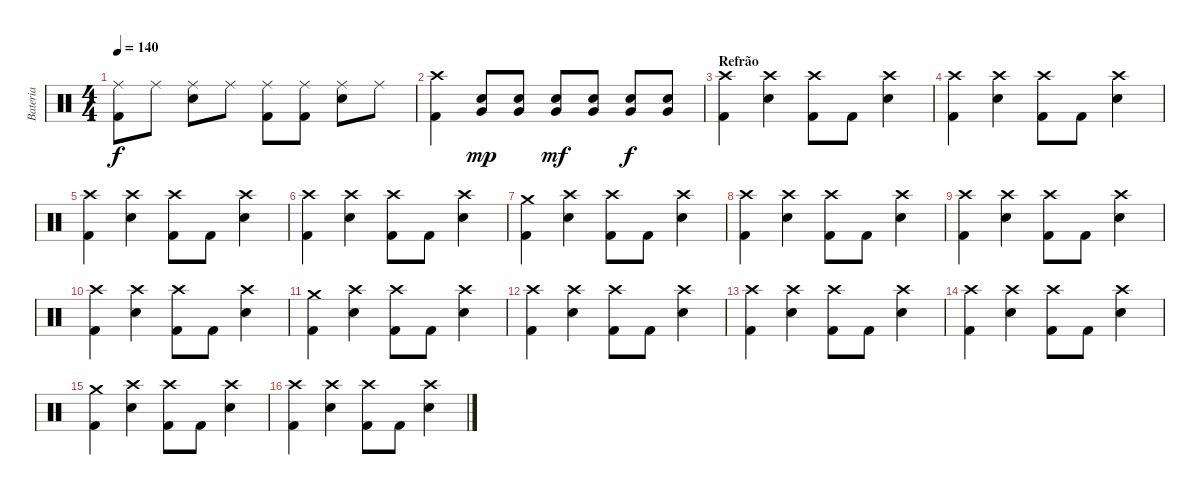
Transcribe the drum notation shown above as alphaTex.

\track ("Bateria" "Bateria") {instrument percussion}
\staff {score}
\articulation defaults
\ts (4 4)
\tempo 140
\clef neutral
\ks c
("Ride (middle)" "Kick (hit) 2").8{dy f} "Ride (middle)".8 ("Ride (middle)" "Electric Snare (hit)").8 "Ride (middle)".8 ("Ride (middle)" "Kick (hit) 2").8 ("Ride (middle)" "Kick (hit) 2").8 ("Ride (middle)" "Electric Snare (hit)").8 "Ride (middle)".8 |
("Crash high (hit)" "Kick (hit) 2").4 ("Electric Snare (hit)" "Very Low Tom (hit)").8{dy mp} ("Electric Snare (hit)" "Very Low Tom (hit)").8 ("Electric Snare (hit)" "Very Low Tom (hit)").8{dy mf} ("Electric Snare (hit)" "Very Low Tom (hit)").8 ("Electric Snare (hit)" "Very Low Tom (hit)").8{dy f} ("Electric Snare (hit)" "Very Low Tom (hit)").8 |
\section ("" "Refrão")
("Crash high (hit)" "Kick (hit) 2").4 ("Crash high (hit)" "Electric Snare (hit)").4 ("Crash high (hit)" "Kick (hit) 2").8 "Kick (hit) 2".8 ("Crash high (hit)" "Electric Snare (hit)").4 |
("Crash high (hit)" "Kick (hit) 2").4 ("Crash high (hit)" "Electric Snare (hit)").4 ("Crash high (hit)" "Kick (hit) 2").8 "Kick (hit) 2".8 ("Crash high (hit)" "Electric Snare (hit)").4 |
("Crash high (hit)" "Kick (hit) 2").4 ("Crash high (hit)" "Electric Snare (hit)").4 ("Crash high (hit)" "Kick (hit) 2").8 "Kick (hit) 2".8 ("Crash high (hit)" "Electric Snare (hit)").4 |
("Crash high (hit)" "Kick (hit) 2").4 ("Crash high (hit)" "Electric Snare (hit)").4 ("Crash high (hit)" "Kick (hit) 2").8 "Kick (hit) 2".8 ("Crash high (hit)" "Electric Snare (hit)").4 |
("Crash medium (hit)" "Kick (hit) 2").4 ("Crash high (hit)" "Electric Snare (hit)").4 ("Crash high (hit)" "Kick (hit) 2").8 "Kick (hit) 2".8 ("Crash high (hit)" "Electric Snare (hit)").4 |
("Crash high (hit)" "Kick (hit) 2").4 ("Crash high (hit)" "Electric Snare (hit)").4 ("Crash high (hit)" "Kick (hit) 2").8 "Kick (hit) 2".8 ("Crash high (hit)" "Electric Snare (hit)").4 |
("Crash high (hit)" "Kick (hit) 2").4 ("Crash high (hit)" "Electric Snare (hit)").4 ("Crash high (hit)" "Kick (hit) 2").8 "Kick (hit) 2".8 ("Crash high (hit)" "Electric Snare (hit)").4 |
("Crash high (hit)" "Kick (hit) 2").4 ("Crash high (hit)" "Electric Snare (hit)").4 ("Crash high (hit)" "Kick (hit) 2").8 "Kick (hit) 2".8 ("Crash high (hit)" "Electric Snare (hit)").4 |
("Crash medium (hit)" "Kick (hit) 2").4 ("Crash high (hit)" "Electric Snare (hit)").4 ("Crash high (hit)" "Kick (hit) 2").8 "Kick (hit) 2".8 ("Crash high (hit)" "Electric Snare (hit)").4 |
("Crash high (hit)" "Kick (hit) 2").4 ("Crash high (hit)" "Electric Snare (hit)").4 ("Crash high (hit)" "Kick (hit) 2").8 "Kick (hit) 2".8 ("Crash high (hit)" "Electric Snare (hit)").4 |
("Crash high (hit)" "Kick (hit) 2").4 ("Crash high (hit)" "Electric Snare (hit)").4 ("Crash high (hit)" "Kick (hit) 2").8 "Kick (hit) 2".8 ("Crash high (hit)" "Electric Snare (hit)").4 |
("Crash high (hit)" "Kick (hit) 2").4 ("Crash high (hit)" "Electric Snare (hit)").4 ("Crash high (hit)" "Kick (hit) 2").8 "Kick (hit) 2".8 ("Crash high (hit)" "Electric Snare (hit)").4 |
("Crash medium (hit)" "Kick (hit) 2").4 ("Crash high (hit)" "Electric Snare (hit)").4 ("Crash high (hit)" "Kick (hit) 2").8 "Kick (hit) 2".8 ("Crash high (hit)" "Electric Snare (hit)").4 |
("Crash high (hit)" "Kick (hit) 2").4 ("Crash high (hit)" "Electric Snare (hit)").4 ("Crash high (hit)" "Kick (hit) 2").8 "Kick (hit) 2".8 ("Crash high (hit)" "Electric Snare (hit)").4
